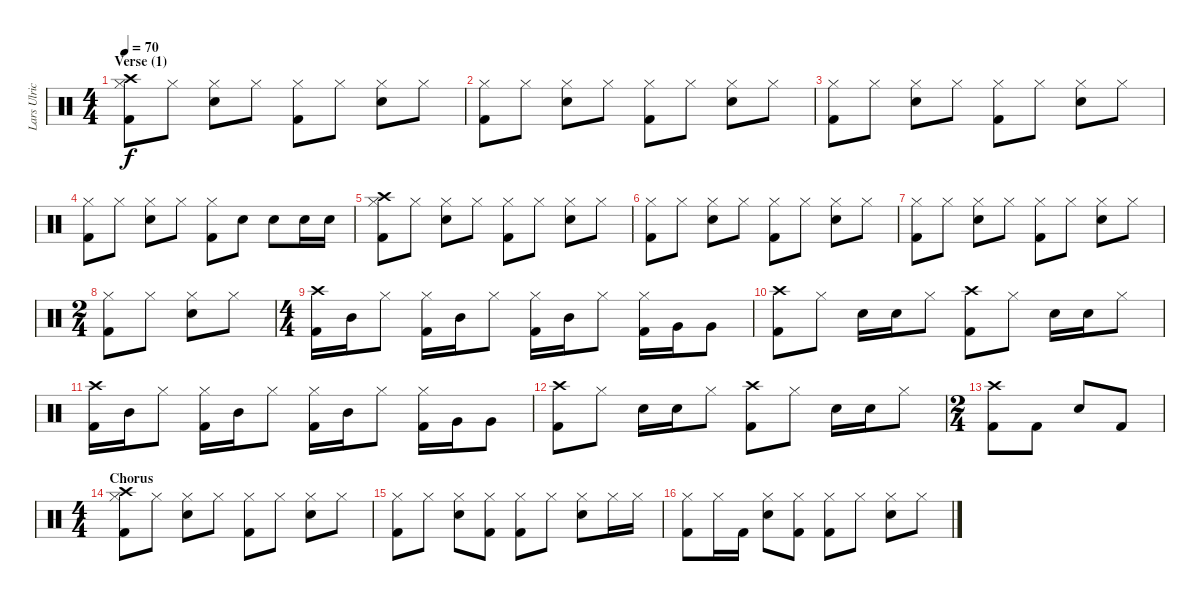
\track ("Lars Ulrich (Drums)" "Lars Ulric") {instrument percussion}
\staff {score}
\articulation defaults
\ts (4 4)
\section ("" "Verse (1)")
\tempo 70
\clef neutral
\ks c
("Crash high (hit)" "Hi-Hat (closed)" "Kick (hit) 2").8{dy f} "Hi-Hat (closed)".8 ("Electric Snare (hit)" "Hi-Hat (closed)").8 "Hi-Hat (closed)".8 ("Hi-Hat (closed)" "Kick (hit) 2").8 "Hi-Hat (closed)".8 ("Electric Snare (hit)" "Hi-Hat (closed)").8 "Hi-Hat (closed)".8 |
("Hi-Hat (closed)" "Kick (hit) 2").8 "Hi-Hat (closed)".8 ("Electric Snare (hit)" "Hi-Hat (closed)").8 "Hi-Hat (closed)".8 ("Hi-Hat (closed)" "Kick (hit) 2").8 "Hi-Hat (closed)".8 ("Electric Snare (hit)" "Hi-Hat (closed)").8 "Hi-Hat (closed)".8 |
("Hi-Hat (closed)" "Kick (hit) 2").8 "Hi-Hat (closed)".8 ("Electric Snare (hit)" "Hi-Hat (closed)").8 "Hi-Hat (closed)".8 ("Hi-Hat (closed)" "Kick (hit) 2").8 "Hi-Hat (closed)".8 ("Electric Snare (hit)" "Hi-Hat (closed)").8 "Hi-Hat (closed)".8 |
("Hi-Hat (closed)" "Kick (hit) 2").8 "Hi-Hat (closed)".8 ("Electric Snare (hit)" "Hi-Hat (closed)").8 "Hi-Hat (closed)".8 ("Hi-Hat (closed)" "Kick (hit) 2").8 "Electric Snare (hit)".8 "Electric Snare (hit)".8 "Electric Snare (hit)".16 "Electric Snare (hit)".16 |
("Crash high (hit)" "Hi-Hat (closed)" "Kick (hit) 2").8 "Hi-Hat (closed)".8 ("Electric Snare (hit)" "Hi-Hat (closed)").8 "Hi-Hat (closed)".8 ("Hi-Hat (closed)" "Kick (hit) 2").8 "Hi-Hat (closed)".8 ("Electric Snare (hit)" "Hi-Hat (closed)").8 "Hi-Hat (closed)".8 |
("Hi-Hat (closed)" "Kick (hit) 2").8 "Hi-Hat (closed)".8 ("Electric Snare (hit)" "Hi-Hat (closed)").8 "Hi-Hat (closed)".8 ("Hi-Hat (closed)" "Kick (hit) 2").8 "Hi-Hat (closed)".8 ("Electric Snare (hit)" "Hi-Hat (closed)").8 "Hi-Hat (closed)".8 |
("Hi-Hat (closed)" "Kick (hit) 2").8 "Hi-Hat (closed)".8 ("Electric Snare (hit)" "Hi-Hat (closed)").8 "Hi-Hat (closed)".8 ("Hi-Hat (closed)" "Kick (hit) 2").8 "Hi-Hat (closed)".8 ("Electric Snare (hit)" "Hi-Hat (closed)").8 "Hi-Hat (closed)".8 |
\ts (2 4)
("Hi-Hat (closed)" "Kick (hit) 2").8 "Hi-Hat (closed)".8 ("Electric Snare (hit)" "Hi-Hat (closed)").8 "Hi-Hat (closed)".8 |
\ts (4 4)
("Crash high (hit)" "Kick (hit) 2").16 "Mid Tom (hit)".16 "Hi-Hat (closed)".8 ("Hi-Hat (closed)" "Kick (hit) 2").16 "Mid Tom (hit)".16 "Hi-Hat (closed)".8 ("Hi-Hat (closed)" "Kick (hit) 2").16 "Mid Tom (hit)".16 "Hi-Hat (closed)".8 ("Hi-Hat (closed)" "Kick (hit) 2").16 "Very Low Tom (hit)".16 "Very Low Tom (hit)".8 |
("Crash high (hit)" "Kick (hit) 2").8 "Hi-Hat (closed)".8 "Electric Snare (hit)".16 "Electric Snare (hit)".16 "Hi-Hat (closed)".8 ("Crash high (hit)" "Kick (hit) 2").8 "Hi-Hat (closed)".8 "Electric Snare (hit)".16 "Electric Snare (hit)".16 "Hi-Hat (closed)".8 |
("Crash high (hit)" "Kick (hit) 2").16 "Mid Tom (hit)".16 "Hi-Hat (closed)".8 ("Hi-Hat (closed)" "Kick (hit) 2").16 "Mid Tom (hit)".16 "Hi-Hat (closed)".8 ("Hi-Hat (closed)" "Kick (hit) 2").16 "Mid Tom (hit)".16 "Hi-Hat (closed)".8 ("Hi-Hat (closed)" "Kick (hit) 2").16 "Very Low Tom (hit)".16 "Very Low Tom (hit)".8 |
("Crash high (hit)" "Kick (hit) 2").8 "Hi-Hat (closed)".8 "Electric Snare (hit)".16 "Electric Snare (hit)".16 "Hi-Hat (closed)".8 ("Crash high (hit)" "Kick (hit) 2").8 "Hi-Hat (closed)".8 "Electric Snare (hit)".16 "Electric Snare (hit)".16 "Hi-Hat (closed)".8 |
\ts (2 4)
("Crash high (hit)" "Kick (hit) 2").8 "Kick (hit) 2".8 "Electric Snare (hit)".8 "Kick (hit) 2".8 |
\ts (4 4)
\section ("" "Chorus")
("Crash high (hit)" "Hi-Hat (closed)" "Kick (hit) 2").8 "Hi-Hat (closed)".8 ("Electric Snare (hit)" "Hi-Hat (closed)").8 "Hi-Hat (closed)".8 ("Hi-Hat (closed)" "Kick (hit) 2").8 "Hi-Hat (closed)".8 ("Electric Snare (hit)" "Hi-Hat (closed)").8 "Hi-Hat (closed)".8 |
("Hi-Hat (closed)" "Kick (hit) 2").8 "Hi-Hat (closed)".8 ("Electric Snare (hit)" "Hi-Hat (closed)").8 ("Hi-Hat (closed)" "Kick (hit) 2").8 ("Hi-Hat (closed)" "Kick (hit) 2").8 "Hi-Hat (closed)".8 ("Electric Snare (hit)" "Hi-Hat (closed)").8 "Hi-Hat (closed)".16 "Hi-Hat (closed)".16 |
("Hi-Hat (closed)" "Kick (hit) 2").8 "Hi-Hat (closed)".16 "Kick (hit) 2".16 ("Electric Snare (hit)" "Hi-Hat (closed)").8 ("Hi-Hat (closed)" "Kick (hit) 2").8 ("Hi-Hat (closed)" "Kick (hit) 2").8 "Hi-Hat (closed)".8 ("Electric Snare (hit)" "Hi-Hat (closed)").8 "Hi-Hat (closed)".8
